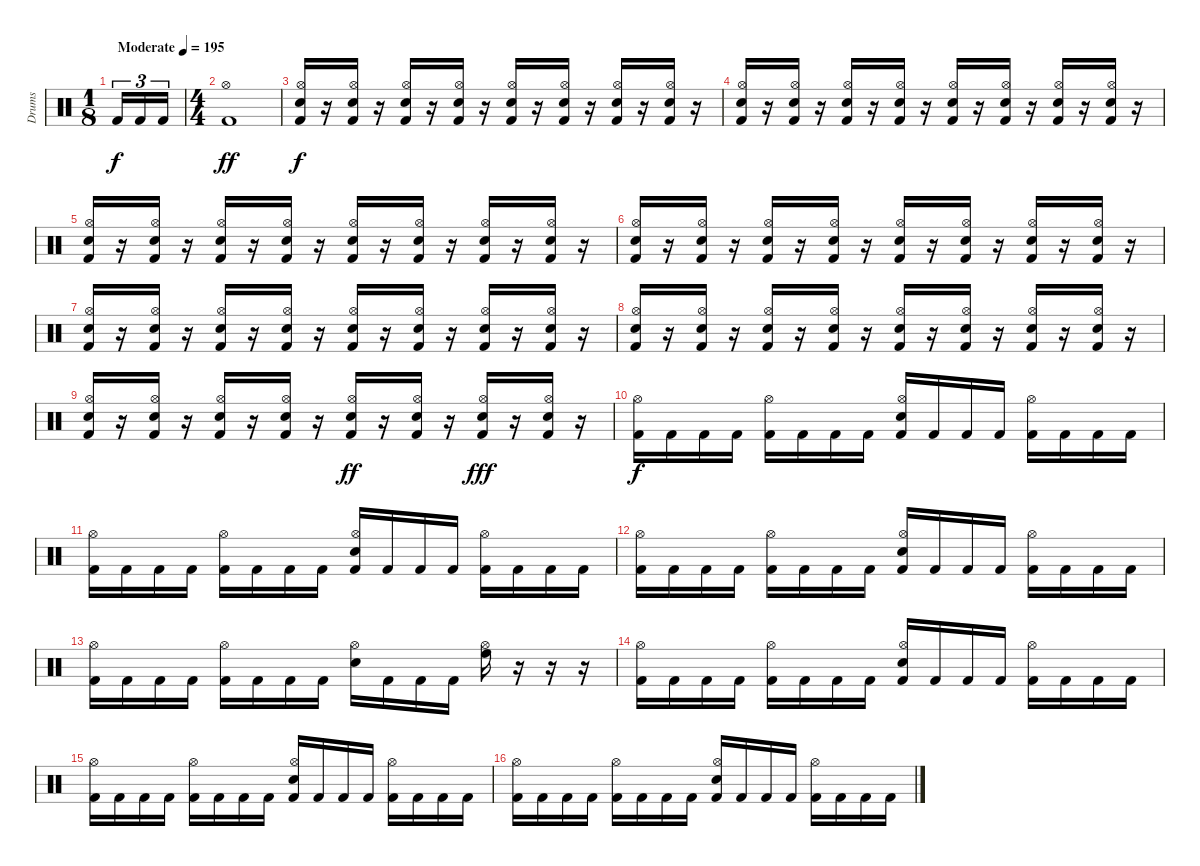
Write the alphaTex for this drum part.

\track ("Drums" "Drums") {instrument percussion}
\staff {score}
\articulation defaults
\ts (1 8)
\tempo (195 "Moderate")
\clef neutral
\ks c "Kick (hit) 2".16{tu (3 2) dy f} "Kick (hit) 2".16{tu (3 2)} "Kick (hit) 2".16{tu (3 2)}
|
\ts (4 4)
("Hi-Hat (open)" "Kick (hit) 2").1{dy ff} |
("Hi-Hat (open)" "Snare (hit) 2" "Kick (hit) 2").16{dy f} r.16 ("Hi-Hat (open)" "Snare (hit) 2" "Kick (hit) 2").16 r.16 ("Hi-Hat (open)" "Snare (hit) 2" "Kick (hit) 2").16 r.16 ("Hi-Hat (open)" "Snare (hit) 2" "Kick (hit) 2").16 r.16 ("Hi-Hat (open)" "Snare (hit) 2" "Kick (hit) 2").16 r.16 ("Hi-Hat (open)" "Snare (hit) 2" "Kick (hit) 2").16 r.16 ("Hi-Hat (open)" "Snare (hit) 2" "Kick (hit) 2").16 r.16 ("Hi-Hat (open)" "Snare (hit) 2" "Kick (hit) 2").16 r.16 |
("Hi-Hat (open)" "Snare (hit) 2" "Kick (hit) 2").16 r.16 ("Hi-Hat (open)" "Snare (hit) 2" "Kick (hit) 2").16 r.16 ("Hi-Hat (open)" "Snare (hit) 2" "Kick (hit) 2").16 r.16 ("Hi-Hat (open)" "Snare (hit) 2" "Kick (hit) 2").16 r.16 ("Hi-Hat (open)" "Snare (hit) 2" "Kick (hit) 2").16 r.16 ("Hi-Hat (open)" "Snare (hit) 2" "Kick (hit) 2").16 r.16 ("Hi-Hat (open)" "Snare (hit) 2" "Kick (hit) 2").16 r.16 ("Hi-Hat (open)" "Snare (hit) 2" "Kick (hit) 2").16 r.16 |
("Hi-Hat (open)" "Snare (hit) 2" "Kick (hit) 2").16 r.16 ("Hi-Hat (open)" "Snare (hit) 2" "Kick (hit) 2").16 r.16 ("Hi-Hat (open)" "Snare (hit) 2" "Kick (hit) 2").16 r.16 ("Hi-Hat (open)" "Snare (hit) 2" "Kick (hit) 2").16 r.16 ("Hi-Hat (open)" "Snare (hit) 2" "Kick (hit) 2").16 r.16 ("Hi-Hat (open)" "Snare (hit) 2" "Kick (hit) 2").16 r.16 ("Hi-Hat (open)" "Snare (hit) 2" "Kick (hit) 2").16 r.16 ("Hi-Hat (open)" "Snare (hit) 2" "Kick (hit) 2").16 r.16 |
("Hi-Hat (open)" "Snare (hit) 2" "Kick (hit) 2").16 r.16 ("Hi-Hat (open)" "Snare (hit) 2" "Kick (hit) 2").16 r.16 ("Hi-Hat (open)" "Snare (hit) 2" "Kick (hit) 2").16 r.16 ("Hi-Hat (open)" "Snare (hit) 2" "Kick (hit) 2").16 r.16 ("Hi-Hat (open)" "Snare (hit) 2" "Kick (hit) 2").16 r.16 ("Hi-Hat (open)" "Snare (hit) 2" "Kick (hit) 2").16 r.16 ("Hi-Hat (open)" "Snare (hit) 2" "Kick (hit) 2").16 r.16 ("Hi-Hat (open)" "Snare (hit) 2" "Kick (hit) 2").16 r.16 |
("Hi-Hat (open)" "Snare (hit) 2" "Kick (hit) 2").16 r.16 ("Hi-Hat (open)" "Snare (hit) 2" "Kick (hit) 2").16 r.16 ("Hi-Hat (open)" "Snare (hit) 2" "Kick (hit) 2").16 r.16 ("Hi-Hat (open)" "Snare (hit) 2" "Kick (hit) 2").16 r.16 ("Hi-Hat (open)" "Snare (hit) 2" "Kick (hit) 2").16 r.16 ("Hi-Hat (open)" "Snare (hit) 2" "Kick (hit) 2").16 r.16 ("Hi-Hat (open)" "Snare (hit) 2" "Kick (hit) 2").16 r.16 ("Hi-Hat (open)" "Snare (hit) 2" "Kick (hit) 2").16 r.16 |
("Hi-Hat (open)" "Snare (hit) 2" "Kick (hit) 2").16 r.16 ("Hi-Hat (open)" "Snare (hit) 2" "Kick (hit) 2").16 r.16 ("Hi-Hat (open)" "Snare (hit) 2" "Kick (hit) 2").16 r.16 ("Hi-Hat (open)" "Snare (hit) 2" "Kick (hit) 2").16 r.16 ("Hi-Hat (open)" "Snare (hit) 2" "Kick (hit) 2").16 r.16 ("Hi-Hat (open)" "Snare (hit) 2" "Kick (hit) 2").16 r.16 ("Hi-Hat (open)" "Snare (hit) 2" "Kick (hit) 2").16 r.16 ("Hi-Hat (open)" "Snare (hit) 2" "Kick (hit) 2").16 r.16 |
("Hi-Hat (open)" "Snare (hit) 2" "Kick (hit) 2").16 r.16 ("Hi-Hat (open)" "Snare (hit) 2" "Kick (hit) 2").16 r.16 ("Hi-Hat (open)" "Snare (hit) 2" "Kick (hit) 2").16 r.16 ("Hi-Hat (open)" "Snare (hit) 2" "Kick (hit) 2").16 r.16 ("Hi-Hat (open)" "Snare (hit) 2" "Kick (hit) 2").16{dy ff} r.16 ("Hi-Hat (open)" "Snare (hit) 2" "Kick (hit) 2").16 r.16 ("Hi-Hat (open)" "Snare (hit) 2" "Kick (hit) 2").16{dy fff} r.16 ("Hi-Hat (open)" "Snare (hit) 2" "Kick (hit) 2").16 r.16 |
("Hi-Hat (open)" "Kick (hit) 2").16{dy f} "Kick (hit) 2".16 "Kick (hit) 2".16 "Kick (hit) 2".16 ("Hi-Hat (open)" "Kick (hit) 2").16 "Kick (hit) 2".16 "Kick (hit) 2".16 "Kick (hit) 2".16 ("Hi-Hat (open)" "Snare (hit) 2" "Kick (hit) 2").16 "Kick (hit) 2".16 "Kick (hit) 2".16 "Kick (hit) 2".16 ("Hi-Hat (open)" "Kick (hit) 2").16 "Kick (hit) 2".16 "Kick (hit) 2".16 "Kick (hit) 2".16 |
("Hi-Hat (open)" "Kick (hit) 2").16 "Kick (hit) 2".16 "Kick (hit) 2".16 "Kick (hit) 2".16 ("Hi-Hat (open)" "Kick (hit) 2").16 "Kick (hit) 2".16 "Kick (hit) 2".16 "Kick (hit) 2".16 ("Hi-Hat (open)" "Snare (hit) 2" "Kick (hit) 2").16 "Kick (hit) 2".16 "Kick (hit) 2".16 "Kick (hit) 2".16 ("Hi-Hat (open)" "Kick (hit) 2").16 "Kick (hit) 2".16 "Kick (hit) 2".16 "Kick (hit) 2".16 |
("Hi-Hat (open)" "Kick (hit) 2").16 "Kick (hit) 2".16 "Kick (hit) 2".16 "Kick (hit) 2".16 ("Hi-Hat (open)" "Kick (hit) 2").16 "Kick (hit) 2".16 "Kick (hit) 2".16 "Kick (hit) 2".16 ("Hi-Hat (open)" "Snare (hit) 2" "Kick (hit) 2").16 "Kick (hit) 2".16 "Kick (hit) 2".16 "Kick (hit) 2".16 ("Hi-Hat (open)" "Kick (hit) 2").16 "Kick (hit) 2".16 "Kick (hit) 2".16 "Kick (hit) 2".16 |
("Hi-Hat (open)" "Kick (hit) 2").16 "Kick (hit) 2".16 "Kick (hit) 2".16 "Kick (hit) 2".16 ("Hi-Hat (open)" "Kick (hit) 2").16 "Kick (hit) 2".16 "Kick (hit) 2".16 "Kick (hit) 2".16 ("Hi-Hat (open)" "Snare (hit) 2").16 "Kick (hit) 2".16 "Kick (hit) 2".16 "Kick (hit) 2".16 ("Hi-Hat (open)" "High Floor Tom (hit)").16 r.16 r.16 r.16 |
("Hi-Hat (open)" "Kick (hit) 2").16 "Kick (hit) 2".16 "Kick (hit) 2".16 "Kick (hit) 2".16 ("Hi-Hat (open)" "Kick (hit) 2").16 "Kick (hit) 2".16 "Kick (hit) 2".16 "Kick (hit) 2".16 ("Hi-Hat (open)" "Snare (hit) 2" "Kick (hit) 2").16 "Kick (hit) 2".16 "Kick (hit) 2".16 "Kick (hit) 2".16 ("Hi-Hat (open)" "Kick (hit) 2").16 "Kick (hit) 2".16 "Kick (hit) 2".16 "Kick (hit) 2".16 |
("Hi-Hat (open)" "Kick (hit) 2").16 "Kick (hit) 2".16 "Kick (hit) 2".16 "Kick (hit) 2".16 ("Hi-Hat (open)" "Kick (hit) 2").16 "Kick (hit) 2".16 "Kick (hit) 2".16 "Kick (hit) 2".16 ("Hi-Hat (open)" "Snare (hit) 2" "Kick (hit) 2").16 "Kick (hit) 2".16 "Kick (hit) 2".16 "Kick (hit) 2".16 ("Hi-Hat (open)" "Kick (hit) 2").16 "Kick (hit) 2".16 "Kick (hit) 2".16 "Kick (hit) 2".16 |
("Hi-Hat (open)" "Kick (hit) 2").16 "Kick (hit) 2".16 "Kick (hit) 2".16 "Kick (hit) 2".16 ("Hi-Hat (open)" "Kick (hit) 2").16 "Kick (hit) 2".16 "Kick (hit) 2".16 "Kick (hit) 2".16 ("Hi-Hat (open)" "Snare (hit) 2" "Kick (hit) 2").16 "Kick (hit) 2".16 "Kick (hit) 2".16 "Kick (hit) 2".16 ("Hi-Hat (open)" "Kick (hit) 2").16 "Kick (hit) 2".16 "Kick (hit) 2".16 "Kick (hit) 2".16
